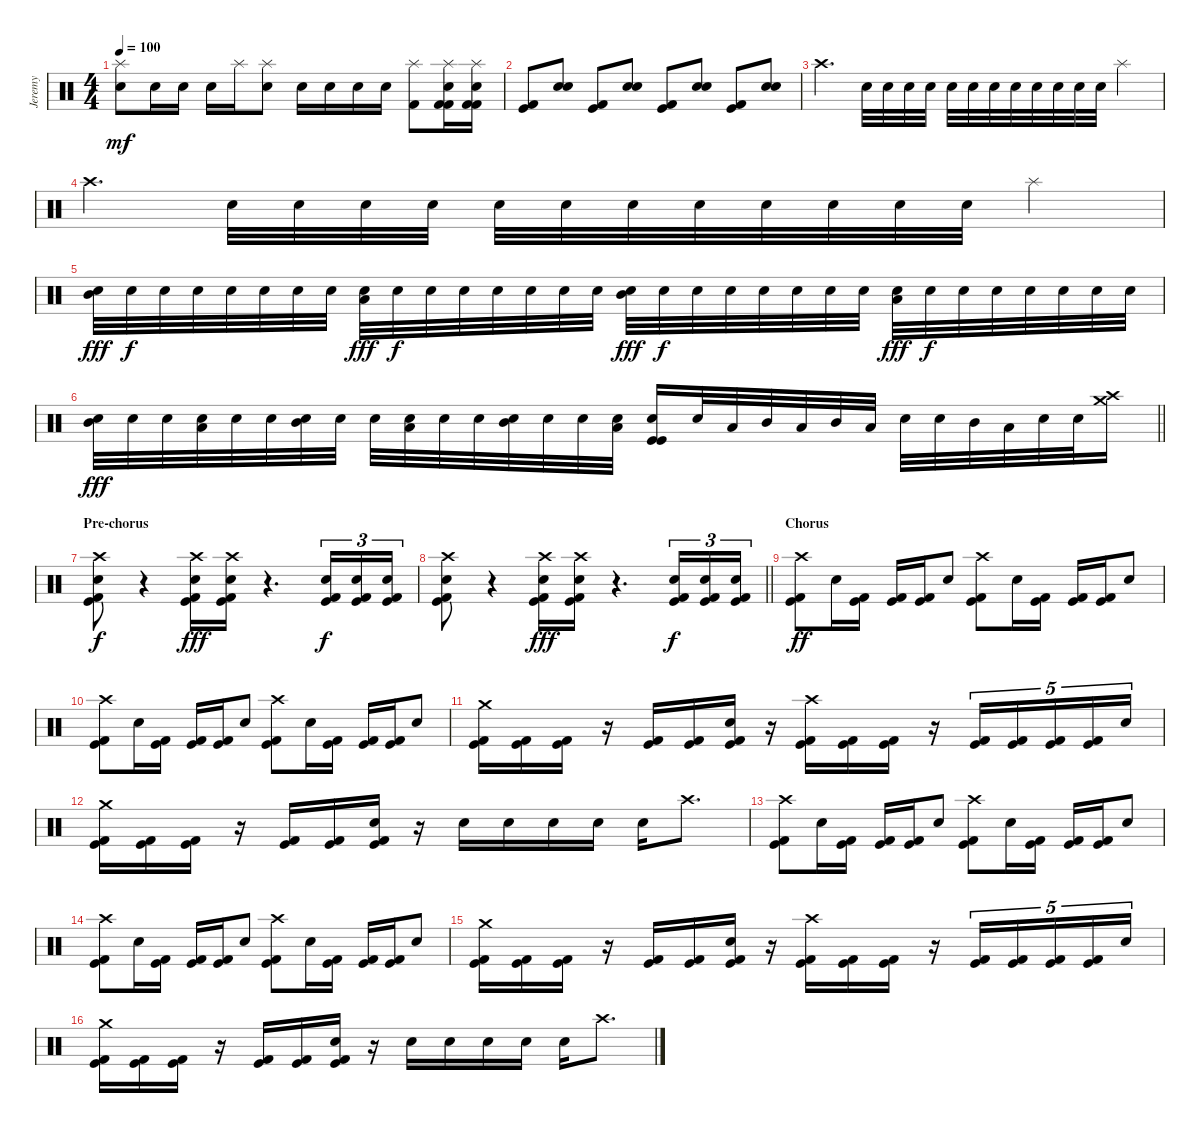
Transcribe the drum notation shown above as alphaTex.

\track ("Jeremy" "Jeremy") {instrument percussion}
\staff {score}
\articulation defaults
\ts (4 4)
\tempo 100
\clef neutral
\ks c
("Splash (hit)" "Snare (hit) 2").8{dy mf} "Electric Snare (hit)".16 "Snare (hit) 2".16 "Electric Snare (hit)".16 "Splash (hit)".16 ("Splash (hit)" "Snare (hit) 2").8 "Electric Snare (hit)".16 "Snare (hit) 2".16 "Electric Snare (hit)".16 "Snare (hit) 2".16 ("Splash (hit)" "Kick (hit) 2").8 ("Splash (hit)" "Electric Snare (hit)" "Kick (hit) 2" "Kick (hit) 2").16 ("Splash (hit)" "Electric Snare (hit)" "Kick (hit) 2" "Kick (hit) 2").16 |
("Kick (hit) 2" "Kick (hit)").8 ("Snare (hit) 2" "Electric Snare (hit)").8 ("Kick (hit) 2" "Kick (hit)").8 ("Snare (hit) 2" "Electric Snare (hit)").8 ("Kick (hit) 2" "Kick (hit)").8 ("Snare (hit) 2" "Electric Snare (hit)").8 ("Kick (hit) 2" "Kick (hit)").8 ("Snare (hit) 2" "Electric Snare (hit)").8 |
"Crash high (hit)".4{d} "Electric Snare (hit)".32 "Snare (hit) 2".32 "Electric Snare (hit)".32 "Snare (hit) 2".32 "Electric Snare (hit)".32 "Electric Snare (hit)".32 "Snare (hit) 2".32 "Electric Snare (hit)".32 "Electric Snare (hit)".32 "Snare (hit) 2".32 "Electric Snare (hit)".32 "Snare (hit) 2".32 "Splash (hit)".4 |
"Crash high (hit)".4{d} "Electric Snare (hit)".32 "Snare (hit) 2".32 "Electric Snare (hit)".32 "Snare (hit) 2".32 "Electric Snare (hit)".32 "Electric Snare (hit)".32 "Snare (hit) 2".32 "Electric Snare (hit)".32 "Electric Snare (hit)".32 "Snare (hit) 2".32 "Electric Snare (hit)".32 "Snare (hit) 2".32 "Splash (hit)".4 |
("Mid Tom (hit)" "Snare (hit) 2").32{dy fff} "Electric Snare (hit)".32{dy f} "Snare (hit) 2".32 "Snare (hit) 2".32 "Electric Snare (hit)".32 "Snare (hit) 2".32 "Electric Snare (hit)".32 "Snare (hit) 2".32 ("Low Tom (hit)" "Electric Snare (hit)").32{dy fff} "Snare (hit) 2".32{dy f} "Electric Snare (hit)".32 "Snare (hit) 2".32 "Electric Snare (hit)".32 "Snare (hit) 2".32 "Electric Snare (hit)".32 "Snare (hit) 2".32 ("Mid Tom (hit)" "Snare (hit) 2").32{dy fff} "Electric Snare (hit)".32{dy f} "Snare (hit) 2".32 "Snare (hit) 2".32 "Electric Snare (hit)".32 "Snare (hit) 2".32 "Electric Snare (hit)".32 "Snare (hit) 2".32 ("Low Tom (hit)" "Electric Snare (hit)").32{dy fff} "Snare (hit) 2".32{dy f} "Electric Snare (hit)".32 "Snare (hit) 2".32 "Electric Snare (hit)".32 "Snare (hit) 2".32 "Electric Snare (hit)".32 "Snare (hit) 2".32 |
\barLineRight lightlight
("Mid Tom (hit)" "Snare (hit) 2").32{dy fff} "Electric Snare (hit)".32 "Snare (hit) 2".32 ("Low Tom (hit)" "Snare (hit) 2").32 "Electric Snare (hit)".32 "Snare (hit) 2".32 ("Mid Tom (hit)" "Electric Snare (hit)").32 "Snare (hit) 2".32 "Electric Snare (hit)".32 ("Low Tom (hit)" "Snare (hit) 2").32 "Electric Snare (hit)".32 "Snare (hit) 2".32 ("Mid Tom (hit)" "Electric Snare (hit)").32 "Snare (hit) 2".32 "Electric Snare (hit)".32 ("Low Tom (hit)" "Snare (hit) 2").32 ("Snare (hit) 2" "Kick (hit)" "Kick (hit)").16{volume 16} "Electric Snare (hit)".32 "Low Tom (hit)".32 "Mid Tom (hit)".32 "Low Tom (hit)".32 "Mid Tom (hit)".32 "Low Tom (hit)".32 "Electric Snare (hit)".32 "Electric Snare (hit)".32 "Mid Tom (hit)".32 "Low Tom (hit)".32 "Snare (hit) 2".32 "Electric Snare (hit)".32 ("Crash high (hit)" "Crash medium (hit)").16 |
\section ("" "Pre-chorus")
("Crash high (hit)" "Electric Snare (hit)" "Kick (hit) 2" "Kick (hit)").8{dy f} r.4 ("Crash high (hit)" "Electric Snare (hit)" "Kick (hit) 2" "Kick (hit)").16{dy fff} ("Crash high (hit)" "Electric Snare (hit)" "Kick (hit) 2" "Kick (hit)").16 r.4{d} ("Electric Snare (hit)" "Kick (hit)" "Kick (hit) 2").16{tu (3 2) dy f} ("Electric Snare (hit)" "Kick (hit)" "Kick (hit) 2").16{tu (3 2)} ("Electric Snare (hit)" "Kick (hit)" "Kick (hit) 2").16{tu (3 2)} |
\barLineRight lightlight
("Crash high (hit)" "Electric Snare (hit)" "Kick (hit) 2" "Kick (hit)").8 r.4 ("Crash high (hit)" "Electric Snare (hit)" "Kick (hit) 2" "Kick (hit)").16{dy fff} ("Crash high (hit)" "Electric Snare (hit)" "Kick (hit) 2" "Kick (hit)").16 r.4{d} ("Electric Snare (hit)" "Kick (hit)" "Kick (hit) 2").16{tu (3 2) dy f} ("Electric Snare (hit)" "Kick (hit)" "Kick (hit) 2").16{tu (3 2)} ("Electric Snare (hit)" "Kick (hit)" "Kick (hit) 2").16{tu (3 2)} |
\section ("" "Chorus")
("Crash high (hit)" "Kick (hit) 2" "Kick (hit)").8{dy ff} "Electric Snare (hit)".16 ("Kick (hit) 2" "Kick (hit)").16 ("Kick (hit) 2" "Kick (hit)").16 ("Kick (hit) 2" "Kick (hit)").16 "Electric Snare (hit)".8 ("Crash high (hit)" "Kick (hit) 2" "Kick (hit)").8 "Electric Snare (hit)".16 ("Kick (hit) 2" "Kick (hit)").16 ("Kick (hit) 2" "Kick (hit)").16 ("Kick (hit) 2" "Kick (hit)").16 "Electric Snare (hit)".8 |
("Crash high (hit)" "Kick (hit) 2" "Kick (hit)").8 "Electric Snare (hit)".16 ("Kick (hit) 2" "Kick (hit)").16 ("Kick (hit) 2" "Kick (hit)").16 ("Kick (hit) 2" "Kick (hit)").16 "Electric Snare (hit)".8 ("Crash high (hit)" "Kick (hit) 2" "Kick (hit)").8 "Electric Snare (hit)".16 ("Kick (hit) 2" "Kick (hit)").16 ("Kick (hit) 2" "Kick (hit)").16 ("Kick (hit) 2" "Kick (hit)").16 "Electric Snare (hit)".8 |
("Crash medium (hit)" "Kick (hit) 2" "Kick (hit)").16 ("Kick (hit) 2" "Kick (hit)").16 ("Kick (hit) 2" "Kick (hit)").16 r.16 ("Kick (hit) 2" "Kick (hit)").16 ("Kick (hit) 2" "Kick (hit)").16 ("Electric Snare (hit)" "Kick (hit) 2" "Kick (hit)").16 r.16 ("Crash high (hit)" "Kick (hit) 2" "Kick (hit)").16 ("Kick (hit) 2" "Kick (hit)").16 ("Kick (hit) 2" "Kick (hit)").16 r.16 ("Kick (hit)" "Kick (hit) 2").16{tu (5 4)} ("Kick (hit)" "Kick (hit) 2").16{tu (5 4)} ("Kick (hit)" "Kick (hit) 2").16{tu (5 4)} ("Kick (hit)" "Kick (hit) 2").16{tu (5 4)} "Electric Snare (hit)".16{tu (5 4)} |
("Crash medium (hit)" "Kick (hit) 2" "Kick (hit)").16 ("Kick (hit) 2" "Kick (hit)").16 ("Kick (hit) 2" "Kick (hit)").16 r.16 ("Kick (hit) 2" "Kick (hit)").16 ("Kick (hit) 2" "Kick (hit)").16 ("Electric Snare (hit)" "Kick (hit) 2" "Kick (hit)").16 r.16 "Electric Snare (hit)".16 "Electric Snare (hit)".16 "Electric Snare (hit)".16 "Electric Snare (hit)".16 "Electric Snare (hit)".16 "Crash high (hit)".8{d} |
("Crash high (hit)" "Kick (hit) 2" "Kick (hit)").8 "Electric Snare (hit)".16 ("Kick (hit) 2" "Kick (hit)").16 ("Kick (hit) 2" "Kick (hit)").16 ("Kick (hit) 2" "Kick (hit)").16 "Electric Snare (hit)".8 ("Crash high (hit)" "Kick (hit) 2" "Kick (hit)").8 "Electric Snare (hit)".16 ("Kick (hit) 2" "Kick (hit)").16 ("Kick (hit) 2" "Kick (hit)").16 ("Kick (hit) 2" "Kick (hit)").16 "Electric Snare (hit)".8 |
("Crash high (hit)" "Kick (hit) 2" "Kick (hit)").8 "Electric Snare (hit)".16 ("Kick (hit) 2" "Kick (hit)").16 ("Kick (hit) 2" "Kick (hit)").16 ("Kick (hit) 2" "Kick (hit)").16 "Electric Snare (hit)".8 ("Crash high (hit)" "Kick (hit) 2" "Kick (hit)").8 "Electric Snare (hit)".16 ("Kick (hit) 2" "Kick (hit)").16 ("Kick (hit) 2" "Kick (hit)").16 ("Kick (hit) 2" "Kick (hit)").16 "Electric Snare (hit)".8 |
("Crash medium (hit)" "Kick (hit) 2" "Kick (hit)").16 ("Kick (hit) 2" "Kick (hit)").16 ("Kick (hit) 2" "Kick (hit)").16 r.16 ("Kick (hit) 2" "Kick (hit)").16 ("Kick (hit) 2" "Kick (hit)").16 ("Electric Snare (hit)" "Kick (hit) 2" "Kick (hit)").16 r.16 ("Crash high (hit)" "Kick (hit) 2" "Kick (hit)").16 ("Kick (hit) 2" "Kick (hit)").16 ("Kick (hit) 2" "Kick (hit)").16 r.16 ("Kick (hit)" "Kick (hit) 2").16{tu (5 4)} ("Kick (hit)" "Kick (hit) 2").16{tu (5 4)} ("Kick (hit)" "Kick (hit) 2").16{tu (5 4)} ("Kick (hit)" "Kick (hit) 2").16{tu (5 4)} "Electric Snare (hit)".16{tu (5 4)} |
("Crash medium (hit)" "Kick (hit) 2" "Kick (hit)").16 ("Kick (hit) 2" "Kick (hit)").16 ("Kick (hit) 2" "Kick (hit)").16 r.16 ("Kick (hit) 2" "Kick (hit)").16 ("Kick (hit) 2" "Kick (hit)").16 ("Electric Snare (hit)" "Kick (hit) 2" "Kick (hit)").16 r.16 "Electric Snare (hit)".16 "Electric Snare (hit)".16 "Electric Snare (hit)".16 "Electric Snare (hit)".16 "Electric Snare (hit)".16 "Crash high (hit)".8{d}
